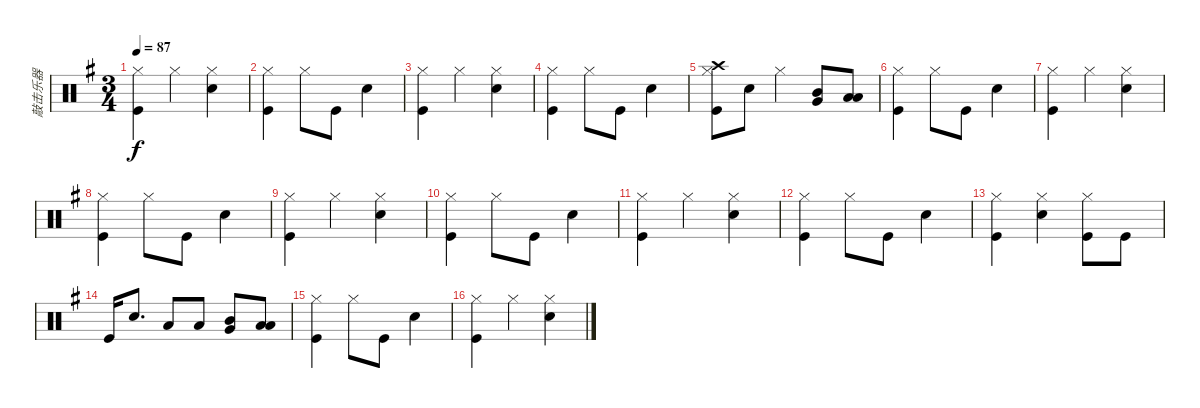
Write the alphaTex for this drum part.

\track ("敲击乐器" "敲击乐器") {instrument percussion}
\staff {score}
\articulation defaults
\ts (3 4)
\tempo 87
\clef neutral
\ks g
("Hi-Hat (closed)" "Kick (hit)").4{dy f} "Hi-Hat (closed)".4 ("Hi-Hat (closed)" "Snare (hit) 2").4 |
("Hi-Hat (closed)" "Kick (hit)").4 "Hi-Hat (closed)".8 "Kick (hit)".8 "Snare (hit) 2".4 |
("Hi-Hat (closed)" "Kick (hit)").4 "Hi-Hat (closed)".4 ("Hi-Hat (closed)" "Snare (hit) 2").4 |
("Hi-Hat (closed)" "Kick (hit)").4 "Hi-Hat (closed)".8 "Kick (hit)".8 "Snare (hit) 2".4 |
("Hi-Hat (closed)" "Crash high (hit)" "Kick (hit)").8 "Snare (hit) 2".8 "Hi-Hat (closed)".4 ("Very Low Tom (hit)" "Mid Tom (hit)").8 ("Low Tom (hit)" "Low Floor Tom (hit)").8 |
("Hi-Hat (closed)" "Kick (hit)").4 "Hi-Hat (closed)".8 "Kick (hit)".8 "Snare (hit) 2".4 |
("Hi-Hat (closed)" "Kick (hit)").4 "Hi-Hat (closed)".4 ("Hi-Hat (closed)" "Snare (hit) 2").4 |
("Hi-Hat (closed)" "Kick (hit)").4 "Hi-Hat (closed)".8 "Kick (hit)".8 "Snare (hit) 2".4 |
("Hi-Hat (closed)" "Kick (hit)").4 "Hi-Hat (closed)".4 ("Hi-Hat (closed)" "Snare (hit) 2").4 |
("Hi-Hat (closed)" "Kick (hit)").4 "Hi-Hat (closed)".8 "Kick (hit)".8 "Snare (hit) 2".4 |
("Hi-Hat (closed)" "Kick (hit)").4 "Hi-Hat (closed)".4 ("Hi-Hat (closed)" "Snare (hit) 2").4 |
("Hi-Hat (closed)" "Kick (hit)").4 "Hi-Hat (closed)".8 "Kick (hit)".8 "Snare (hit) 2".4 |
("Hi-Hat (closed)" "Kick (hit)").4 ("Hi-Hat (closed)" "Snare (hit) 2").4 ("Hi-Hat (closed)" "Kick (hit)").8 "Kick (hit)".8 |
"Kick (hit)".16 "Snare (hit) 2".8{d} "Low Tom (hit)".8 "Low Floor Tom (hit)".8 ("Very Low Tom (hit)" "Mid Tom (hit)").8 ("Low Tom (hit)" "Low Floor Tom (hit)").8 |
("Hi-Hat (closed)" "Kick (hit)").4 "Hi-Hat (closed)".8 "Kick (hit)".8 "Snare (hit) 2".4 |
("Hi-Hat (closed)" "Kick (hit)").4 "Hi-Hat (closed)".4 ("Hi-Hat (closed)" "Snare (hit) 2").4
